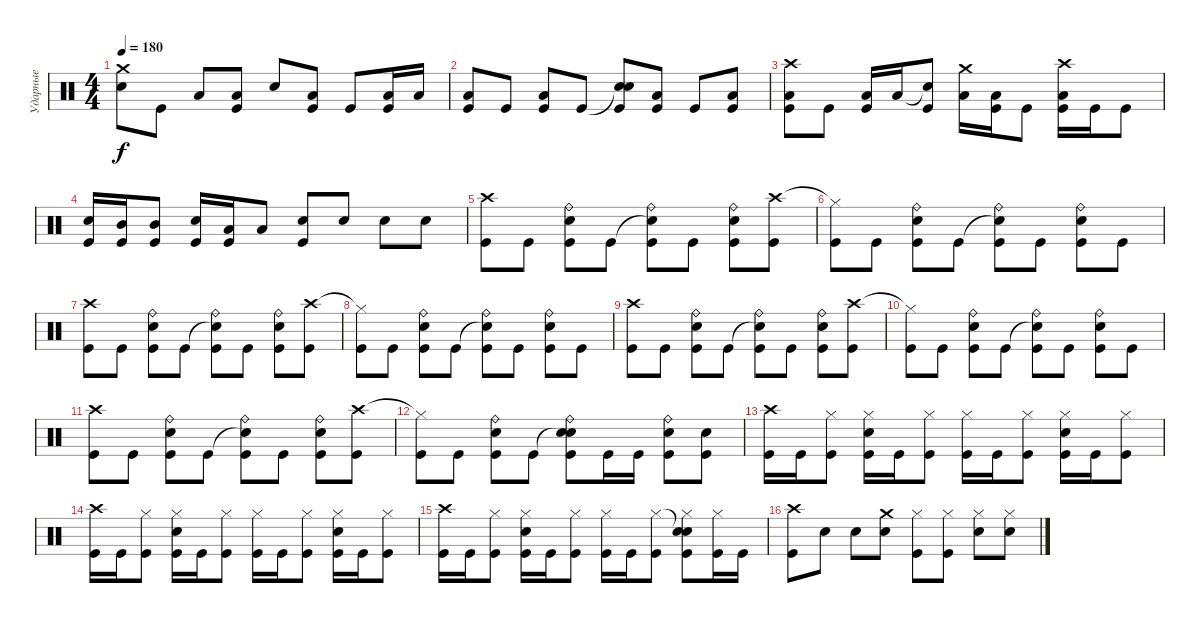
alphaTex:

\track ("Ударные" "Ударные") {instrument percussion}
\staff {score}
\articulation defaults
\ts (4 4)
\tempo 180
\clef neutral
\ks c
("Crash medium (hit)" "Electric Snare (hit)").8{dy f} "Kick (hit)".8 "Low Tom (hit)".8 ("Low Tom (hit)" "Kick (hit)").8 "Electric Snare (hit)".8 ("Low Tom (hit)" "Kick (hit)").8 "Kick (hit)".8 ("Low Tom (hit)" "Kick (hit)").16 "Low Tom (hit)".16 |
("Low Tom (hit)" "Kick (hit)").8 "Kick (hit)".8 ("Low Tom (hit)" "Kick (hit)").8 "Kick (hit)".8 ("Snare (hit)"{t} "Electric Snare (hit)" "Kick (hit)").8 ("Low Tom (hit)" "Kick (hit)").8 "Kick (hit)".8 ("Low Tom (hit)" "Kick (hit)").8 |
("Crash high (hit)" "Low Tom (hit)" "Kick (hit)").8 "Kick (hit)".8 ("Low Tom (hit)" "Kick (hit)").16 "Low Tom (hit)".16 ("Snare (hit)"{t} "Kick (hit)").8 ("Crash medium (hit)" "Low Tom (hit)").16 ("Low Tom (hit)" "Kick (hit)").16 "Kick (hit)".8 ("Crash high (hit)" "Low Tom (hit)" "Kick (hit)").16 "Kick (hit)".16 "Kick (hit)".8 |
("Electric Snare (hit)" "Kick (hit)").16 ("Mid Tom (hit)" "Kick (hit)").16 ("Mid Tom (hit)" "Kick (hit)").8 ("Electric Snare (hit)" "Kick (hit)").16 ("Low Tom (hit)" "Kick (hit)").16 "Low Tom (hit)".8 ("Electric Snare (hit)" "Kick (hit)").8 "Electric Snare (hit)".8 "Electric Snare (hit)".8 "Electric Snare (hit)".8 |
("Crash high (hit)" "Kick (hit)").8 "Kick (hit)".8 ("Ride (bell)" "Electric Snare (hit)" "Kick (hit)").8 "Kick (hit)".8 ("Snare (hit)"{t} "Ride (bell)" "Kick (hit)").8 "Kick (hit)".8 ("Ride (bell)" "Electric Snare (hit)" "Kick (hit)").8 ("Crash high (hit)" "Kick (hit)").8 |
("Hi-Hat (closed)"{t} "Kick (hit)").8 "Kick (hit)".8 ("Ride (bell)" "Electric Snare (hit)" "Kick (hit)").8 "Kick (hit)".8 ("Snare (hit)"{t} "Ride (bell)" "Kick (hit)").8 "Kick (hit)".8 ("Ride (bell)" "Electric Snare (hit)" "Kick (hit)").8 "Kick (hit)".8 |
("Crash high (hit)" "Kick (hit)").8 "Kick (hit)".8 ("Ride (bell)" "Electric Snare (hit)" "Kick (hit)").8 "Kick (hit)".8 ("Snare (hit)"{t} "Ride (bell)" "Kick (hit)").8 "Kick (hit)".8 ("Ride (bell)" "Electric Snare (hit)" "Kick (hit)").8 ("Crash high (hit)" "Kick (hit)").8 |
("Hi-Hat (closed)"{t} "Kick (hit)").8 "Kick (hit)".8 ("Ride (bell)" "Electric Snare (hit)" "Kick (hit)").8 "Kick (hit)".8 ("Snare (hit)"{t} "Ride (bell)" "Kick (hit)").8 "Kick (hit)".8 ("Ride (bell)" "Electric Snare (hit)" "Kick (hit)").8 "Kick (hit)".8 |
("Crash high (hit)" "Kick (hit)").8 "Kick (hit)".8 ("Ride (bell)" "Electric Snare (hit)" "Kick (hit)").8 "Kick (hit)".8 ("Snare (hit)"{t} "Ride (bell)" "Kick (hit)").8 "Kick (hit)".8 ("Ride (bell)" "Electric Snare (hit)" "Kick (hit)").8 ("Crash high (hit)" "Kick (hit)").8 |
("Hi-Hat (closed)"{t} "Kick (hit)").8 "Kick (hit)".8 ("Ride (bell)" "Electric Snare (hit)" "Kick (hit)").8 "Kick (hit)".8 ("Snare (hit)"{t} "Ride (bell)" "Kick (hit)").8 "Kick (hit)".8 ("Ride (bell)" "Electric Snare (hit)" "Kick (hit)").8 "Kick (hit)".8 |
("Crash high (hit)" "Kick (hit)").8 "Kick (hit)".8 ("Ride (bell)" "Electric Snare (hit)" "Kick (hit)").8 "Kick (hit)".8 ("Snare (hit)"{t} "Ride (bell)" "Kick (hit)").8 "Kick (hit)".8 ("Ride (bell)" "Electric Snare (hit)" "Kick (hit)").8 ("Crash high (hit)" "Kick (hit)").8 |
("Hi-Hat (closed)"{t} "Kick (hit)").8 "Kick (hit)".8 ("Ride (bell)" "Electric Snare (hit)" "Kick (hit)").8 "Kick (hit)".8 ("Snare (hit)"{t} "Ride (bell)" "Electric Snare (hit)" "Kick (hit)").8 "Kick (hit)".16 "Kick (hit)".16 ("Ride (bell)" "Electric Snare (hit)" "Kick (hit)").8 ("Electric Snare (hit)" "Kick (hit)").8 |
("Crash high (hit)" "Kick (hit)").16 "Kick (hit)".16 ("Hi-Hat (closed)" "Kick (hit)").8 ("Hi-Hat (closed)" "Electric Snare (hit)" "Kick (hit)").16 "Kick (hit)".16 ("Hi-Hat (closed)" "Kick (hit)").8 ("Hi-Hat (closed)" "Kick (hit)").16 "Kick (hit)".16 ("Hi-Hat (closed)" "Kick (hit)").8 ("Hi-Hat (closed)" "Electric Snare (hit)" "Kick (hit)").16 "Kick (hit)".16 ("Hi-Hat (closed)" "Kick (hit)").8 |
("Crash high (hit)" "Kick (hit)").16 "Kick (hit)".16 ("Hi-Hat (closed)" "Kick (hit)").8 ("Hi-Hat (closed)" "Electric Snare (hit)" "Kick (hit)").16 "Kick (hit)".16 ("Hi-Hat (closed)" "Kick (hit)").8 ("Hi-Hat (closed)" "Kick (hit)").16 "Kick (hit)".16 ("Hi-Hat (closed)" "Kick (hit)").8 ("Hi-Hat (closed)" "Electric Snare (hit)" "Kick (hit)").16 "Kick (hit)".16 ("Hi-Hat (closed)" "Kick (hit)").8 |
("Crash high (hit)" "Kick (hit)").16 "Kick (hit)".16 ("Hi-Hat (closed)" "Kick (hit)").8 ("Hi-Hat (closed)" "Electric Snare (hit)" "Kick (hit)").16 "Kick (hit)".16 ("Hi-Hat (closed)" "Kick (hit)").8 ("Hi-Hat (closed)" "Kick (hit)").16 "Kick (hit)".16 ("Hi-Hat (closed)" "Kick (hit)").8 ("Snare (hit)"{t} "Hi-Hat (closed)" "Electric Snare (hit)" "Kick (hit)").8 ("Hi-Hat (closed)" "Kick (hit)").16 "Kick (hit)".16 |
("Crash high (hit)" "Kick (hit)").8 "Electric Snare (hit)".8 "Electric Snare (hit)".8 ("Crash medium (hit)" "Electric Snare (hit)").8 ("Hi-Hat (closed)" "Kick (hit)").8 ("Hi-Hat (closed)" "Kick (hit)").8 ("Hi-Hat (closed)" "Electric Snare (hit)").8 ("Hi-Hat (closed)" "Electric Snare (hit)").8
